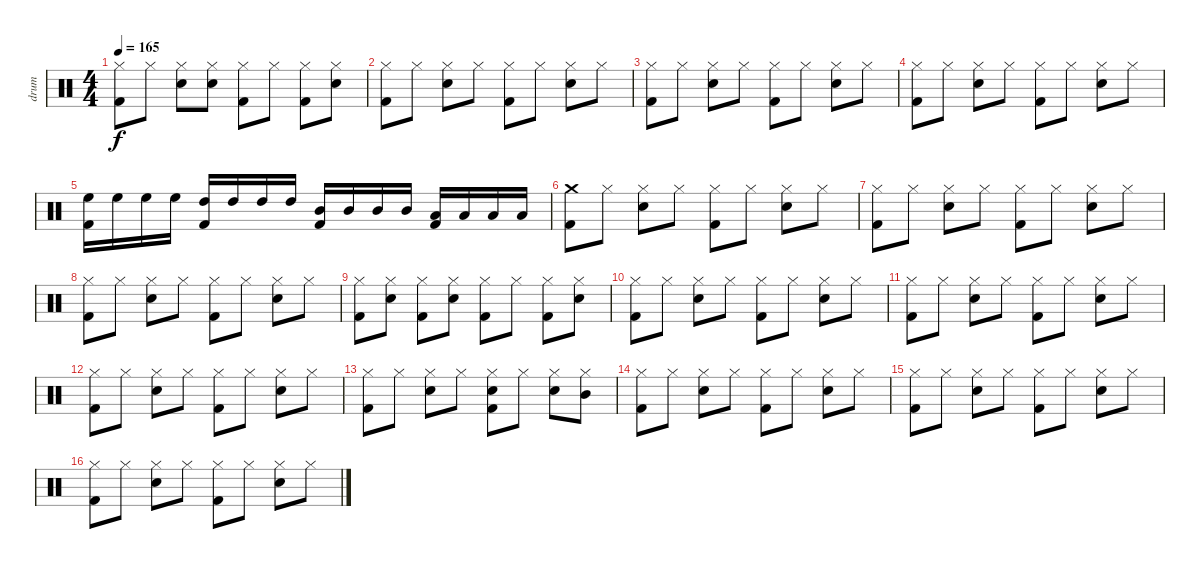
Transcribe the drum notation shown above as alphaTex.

\track ("drum" "drum") {instrument percussion}
\staff {score}
\articulation defaults
\ts (4 4)
\tempo 165
\clef neutral
\ks c
("Hi-Hat (closed)" "Kick (hit) 2").8{dy f} "Hi-Hat (closed)".8 ("Hi-Hat (closed)" "Snare (hit) 2").8 ("Hi-Hat (closed)" "Snare (hit) 2").8 ("Hi-Hat (closed)" "Kick (hit) 2").8 "Hi-Hat (closed)".8 ("Hi-Hat (closed)" "Kick (hit) 2").8 ("Hi-Hat (closed)" "Snare (hit) 2").8 |
("Hi-Hat (closed)" "Kick (hit) 2").8 "Hi-Hat (closed)".8 ("Hi-Hat (closed)" "Snare (hit) 2").8 "Hi-Hat (closed)".8 ("Hi-Hat (closed)" "Kick (hit) 2").8 "Hi-Hat (closed)".8 ("Hi-Hat (closed)" "Snare (hit) 2").8 "Hi-Hat (closed)".8 |
("Hi-Hat (closed)" "Kick (hit) 2").8 "Hi-Hat (closed)".8 ("Hi-Hat (closed)" "Snare (hit) 2").8 "Hi-Hat (closed)".8 ("Hi-Hat (closed)" "Kick (hit) 2").8 "Hi-Hat (closed)".8 ("Hi-Hat (closed)" "Snare (hit) 2").8 "Hi-Hat (closed)".8 |
("Hi-Hat (closed)" "Kick (hit) 2").8 "Hi-Hat (closed)".8 ("Hi-Hat (closed)" "Snare (hit) 2").8 "Hi-Hat (closed)".8 ("Hi-Hat (closed)" "Kick (hit) 2").8 "Hi-Hat (closed)".8 ("Hi-Hat (closed)" "Snare (hit) 2").8 "Hi-Hat (closed)".8 |
("High Floor Tom (hit)" "Kick (hit) 2").16 "High Floor Tom (hit)".16 "High Floor Tom (hit)".16 "High Floor Tom (hit)".16 ("High Tom (hit)" "Kick (hit) 2").16 "High Tom (hit)".16 "High Tom (hit)".16 "High Tom (hit)".16 ("Mid Tom (hit)" "Kick (hit) 2").16 "Mid Tom (hit)".16 "Mid Tom (hit)".16 "Mid Tom (hit)".16 ("Low Tom (hit)" "Kick (hit) 2").16 "Low Tom (hit)".16 "Low Tom (hit)".16 "Low Tom (hit)".16 |
("Crash medium (hit)" "Kick (hit) 2").8 "Hi-Hat (closed)".8 ("Hi-Hat (closed)" "Snare (hit) 2").8 "Hi-Hat (closed)".8 ("Hi-Hat (closed)" "Kick (hit) 2").8 "Hi-Hat (closed)".8 ("Hi-Hat (closed)" "Snare (hit) 2").8 "Hi-Hat (closed)".8 |
("Hi-Hat (closed)" "Kick (hit) 2").8 "Hi-Hat (closed)".8 ("Hi-Hat (closed)" "Snare (hit) 2").8 "Hi-Hat (closed)".8 ("Hi-Hat (closed)" "Kick (hit) 2").8 "Hi-Hat (closed)".8 ("Hi-Hat (closed)" "Snare (hit) 2").8 "Hi-Hat (closed)".8 |
("Hi-Hat (closed)" "Kick (hit) 2").8 "Hi-Hat (closed)".8 ("Hi-Hat (closed)" "Snare (hit) 2").8 "Hi-Hat (closed)".8 ("Hi-Hat (closed)" "Kick (hit) 2").8 "Hi-Hat (closed)".8 ("Hi-Hat (closed)" "Snare (hit) 2").8 "Hi-Hat (closed)".8 |
("Hi-Hat (closed)" "Kick (hit) 2").8 ("Hi-Hat (closed)" "Snare (hit) 2").8 ("Hi-Hat (closed)" "Kick (hit) 2").8 ("Hi-Hat (closed)" "Snare (hit) 2").8 ("Hi-Hat (closed)" "Kick (hit) 2").8 "Hi-Hat (closed)".8 ("Hi-Hat (closed)" "Kick (hit) 2").8 ("Hi-Hat (closed)" "Snare (hit) 2").8 |
("Hi-Hat (closed)" "Kick (hit) 2").8 "Hi-Hat (closed)".8 ("Hi-Hat (closed)" "Snare (hit) 2").8 "Hi-Hat (closed)".8 ("Hi-Hat (closed)" "Kick (hit) 2").8 "Hi-Hat (closed)".8 ("Hi-Hat (closed)" "Snare (hit) 2").8 "Hi-Hat (closed)".8 |
("Hi-Hat (closed)" "Kick (hit) 2").8 "Hi-Hat (closed)".8 ("Hi-Hat (closed)" "Snare (hit) 2").8 "Hi-Hat (closed)".8 ("Hi-Hat (closed)" "Kick (hit) 2").8 "Hi-Hat (closed)".8 ("Hi-Hat (closed)" "Snare (hit) 2").8 "Hi-Hat (closed)".8 |
("Hi-Hat (closed)" "Kick (hit) 2").8 "Hi-Hat (closed)".8 ("Hi-Hat (closed)" "Snare (hit) 2").8 "Hi-Hat (closed)".8 ("Hi-Hat (closed)" "Kick (hit) 2").8 "Hi-Hat (closed)".8 ("Hi-Hat (closed)" "Snare (hit) 2").8 "Hi-Hat (closed)".8 |
("Hi-Hat (closed)" "Kick (hit) 2").8 "Hi-Hat (closed)".8 ("Hi-Hat (closed)" "Snare (hit) 2").8 "Hi-Hat (closed)".8 ("Hi-Hat (closed)" "Snare (hit) 2" "Kick (hit) 2").8 "Hi-Hat (closed)".8 ("Hi-Hat (closed)" "Snare (hit) 2").8 ("Hi-Hat (closed)" "Mid Tom (hit)").8 |
("Hi-Hat (closed)" "Kick (hit) 2").8 "Hi-Hat (closed)".8 ("Hi-Hat (closed)" "Snare (hit) 2").8 "Hi-Hat (closed)".8 ("Hi-Hat (closed)" "Kick (hit) 2").8 "Hi-Hat (closed)".8 ("Hi-Hat (closed)" "Snare (hit) 2").8 "Hi-Hat (closed)".8 |
("Hi-Hat (closed)" "Kick (hit) 2").8 "Hi-Hat (closed)".8 ("Hi-Hat (closed)" "Snare (hit) 2").8 "Hi-Hat (closed)".8 ("Hi-Hat (closed)" "Kick (hit) 2").8 "Hi-Hat (closed)".8 ("Hi-Hat (closed)" "Snare (hit) 2").8 "Hi-Hat (closed)".8 |
("Hi-Hat (closed)" "Kick (hit) 2").8 "Hi-Hat (closed)".8 ("Hi-Hat (closed)" "Snare (hit) 2").8 "Hi-Hat (closed)".8 ("Hi-Hat (closed)" "Kick (hit) 2").8 "Hi-Hat (closed)".8 ("Hi-Hat (closed)" "Snare (hit) 2").8 "Hi-Hat (closed)".8
